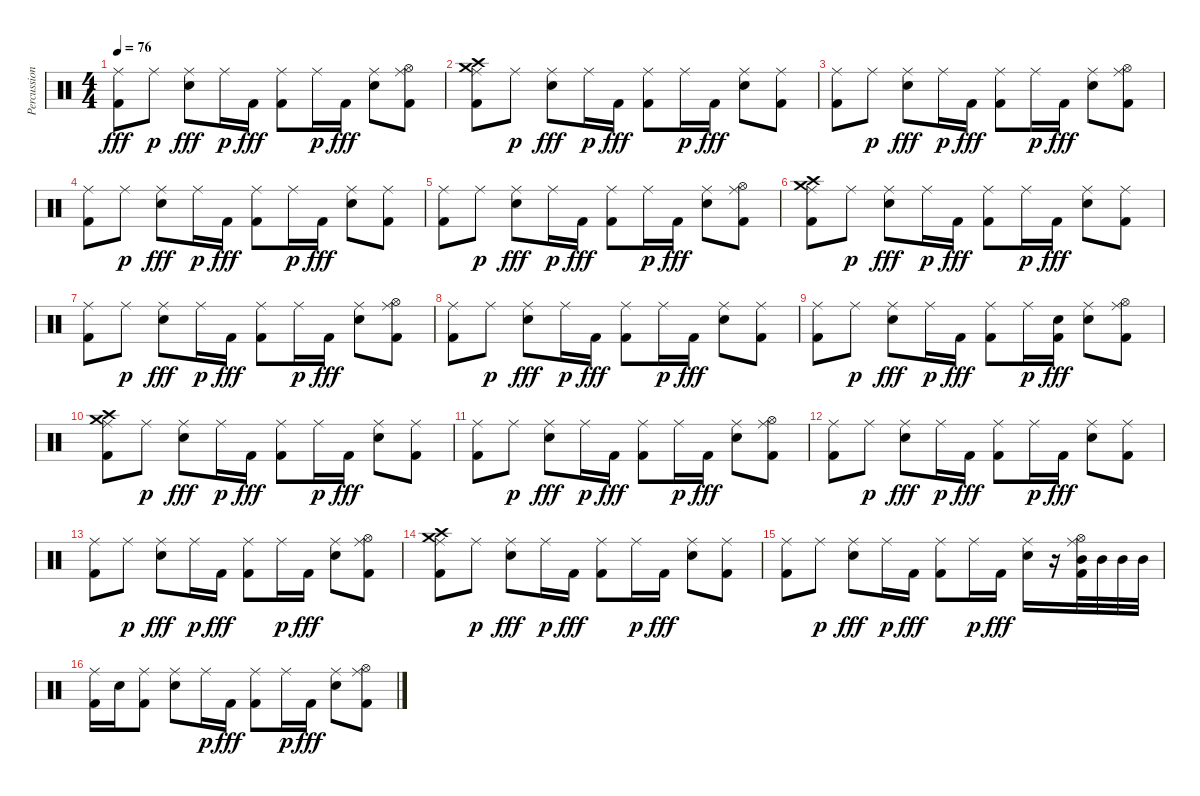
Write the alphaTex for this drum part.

\track ("Percussions" "Percussion") {instrument percussion}
\staff {score}
\articulation defaults
\ts (4 4)
\tempo 76
\clef neutral
\ks c
("Ride (middle)" "Kick (hit) 2").8{dy fff} "Ride (middle)".8{dy p} ("Ride (middle)" "Electric Snare (hit)").8{dy fff} "Ride (middle)".16{dy p} "Kick (hit) 2".16{dy fff} ("Ride (middle)" "Kick (hit) 2").8 "Ride (middle)".16{dy p} "Kick (hit) 2".16{dy fff} ("Ride (middle)" "Electric Snare (hit)").8 ("Ride (middle)" "Hi-Hat (open)" "Kick (hit) 2").8 |
("Ride (middle)" "Crash medium (hit)" "Crash high (hit)" "Kick (hit) 2").8 "Ride (middle)".8{dy p} ("Ride (middle)" "Electric Snare (hit)").8{dy fff} "Ride (middle)".16{dy p} "Kick (hit) 2".16{dy fff} ("Ride (middle)" "Kick (hit) 2").8 "Ride (middle)".16{dy p} "Kick (hit) 2".16{dy fff} ("Ride (middle)" "Electric Snare (hit)").8 ("Ride (middle)" "Kick (hit) 2").8 |
("Ride (middle)" "Kick (hit) 2").8 "Ride (middle)".8{dy p} ("Ride (middle)" "Electric Snare (hit)").8{dy fff} "Ride (middle)".16{dy p} "Kick (hit) 2".16{dy fff} ("Ride (middle)" "Kick (hit) 2").8 "Ride (middle)".16{dy p} "Kick (hit) 2".16{dy fff} ("Ride (middle)" "Electric Snare (hit)").8 ("Ride (middle)" "Hi-Hat (open)" "Kick (hit) 2").8 |
("Ride (middle)" "Kick (hit) 2").8 "Ride (middle)".8{dy p} ("Ride (middle)" "Electric Snare (hit)").8{dy fff} "Ride (middle)".16{dy p} "Kick (hit) 2".16{dy fff} ("Ride (middle)" "Kick (hit) 2").8 "Ride (middle)".16{dy p} "Kick (hit) 2".16{dy fff} ("Ride (middle)" "Electric Snare (hit)").8 ("Ride (middle)" "Kick (hit) 2").8 |
("Ride (middle)" "Kick (hit) 2").8 "Ride (middle)".8{dy p} ("Ride (middle)" "Electric Snare (hit)").8{dy fff} "Ride (middle)".16{dy p} "Kick (hit) 2".16{dy fff} ("Ride (middle)" "Kick (hit) 2").8 "Ride (middle)".16{dy p} "Kick (hit) 2".16{dy fff} ("Ride (middle)" "Electric Snare (hit)").8 ("Ride (middle)" "Hi-Hat (open)" "Kick (hit) 2").8 |
("Ride (middle)" "Crash medium (hit)" "Crash high (hit)" "Kick (hit) 2").8 "Ride (middle)".8{dy p} ("Ride (middle)" "Electric Snare (hit)").8{dy fff} "Ride (middle)".16{dy p} "Kick (hit) 2".16{dy fff} ("Ride (middle)" "Kick (hit) 2").8 "Ride (middle)".16{dy p} "Kick (hit) 2".16{dy fff} ("Ride (middle)" "Electric Snare (hit)").8 ("Ride (middle)" "Kick (hit) 2").8 |
("Ride (middle)" "Kick (hit) 2").8 "Ride (middle)".8{dy p} ("Ride (middle)" "Electric Snare (hit)").8{dy fff} "Ride (middle)".16{dy p} "Kick (hit) 2".16{dy fff} ("Ride (middle)" "Kick (hit) 2").8 "Ride (middle)".16{dy p} "Kick (hit) 2".16{dy fff} ("Ride (middle)" "Electric Snare (hit)").8 ("Ride (middle)" "Hi-Hat (open)" "Kick (hit) 2").8 |
("Ride (middle)" "Kick (hit) 2").8 "Ride (middle)".8{dy p} ("Ride (middle)" "Electric Snare (hit)").8{dy fff} "Ride (middle)".16{dy p} "Kick (hit) 2".16{dy fff} ("Ride (middle)" "Kick (hit) 2").8 "Ride (middle)".16{dy p} "Kick (hit) 2".16{dy fff} ("Ride (middle)" "Electric Snare (hit)").8 ("Ride (middle)" "Kick (hit) 2").8 |
("Ride (middle)" "Kick (hit) 2").8 "Ride (middle)".8{dy p} ("Ride (middle)" "Electric Snare (hit)").8{dy fff} "Ride (middle)".16{dy p} "Kick (hit) 2".16{dy fff} ("Ride (middle)" "Kick (hit) 2").8 "Ride (middle)".16{dy p} ("Electric Snare (hit)" "Kick (hit) 2").16{dy fff} ("Ride (middle)" "Electric Snare (hit)").8 ("Ride (middle)" "Hi-Hat (open)" "Kick (hit) 2").8 |
("Ride (middle)" "Crash medium (hit)" "Crash high (hit)" "Kick (hit) 2").8 "Ride (middle)".8{dy p} ("Ride (middle)" "Electric Snare (hit)").8{dy fff} "Ride (middle)".16{dy p} "Kick (hit) 2".16{dy fff} ("Ride (middle)" "Kick (hit) 2").8 "Ride (middle)".16{dy p} "Kick (hit) 2".16{dy fff} ("Ride (middle)" "Electric Snare (hit)").8 ("Ride (middle)" "Kick (hit) 2").8 |
("Ride (middle)" "Kick (hit) 2").8 "Ride (middle)".8{dy p} ("Ride (middle)" "Electric Snare (hit)").8{dy fff} "Ride (middle)".16{dy p} "Kick (hit) 2".16{dy fff} ("Ride (middle)" "Kick (hit) 2").8 "Ride (middle)".16{dy p} "Kick (hit) 2".16{dy fff} ("Ride (middle)" "Electric Snare (hit)").8 ("Ride (middle)" "Hi-Hat (open)" "Kick (hit) 2").8 |
("Ride (middle)" "Kick (hit) 2").8 "Ride (middle)".8{dy p} ("Ride (middle)" "Electric Snare (hit)").8{dy fff} "Ride (middle)".16{dy p} "Kick (hit) 2".16{dy fff} ("Ride (middle)" "Kick (hit) 2").8 "Ride (middle)".16{dy p} "Kick (hit) 2".16{dy fff} ("Ride (middle)" "Electric Snare (hit)").8 ("Ride (middle)" "Kick (hit) 2").8 |
("Ride (middle)" "Kick (hit) 2").8 "Ride (middle)".8{dy p} ("Ride (middle)" "Electric Snare (hit)").8{dy fff} "Ride (middle)".16{dy p} "Kick (hit) 2".16{dy fff} ("Ride (middle)" "Kick (hit) 2").8 "Ride (middle)".16{dy p} "Kick (hit) 2".16{dy fff} ("Ride (middle)" "Electric Snare (hit)").8 ("Ride (middle)" "Hi-Hat (open)" "Kick (hit) 2").8 |
("Ride (middle)" "Crash medium (hit)" "Crash high (hit)" "Kick (hit) 2").8 "Ride (middle)".8{dy p} ("Ride (middle)" "Electric Snare (hit)").8{dy fff} "Ride (middle)".16{dy p} "Kick (hit) 2".16{dy fff} ("Ride (middle)" "Kick (hit) 2").8 "Ride (middle)".16{dy p} "Kick (hit) 2".16{dy fff} ("Ride (middle)" "Electric Snare (hit)").8 ("Ride (middle)" "Kick (hit) 2").8 |
("Ride (middle)" "Kick (hit) 2").8 "Ride (middle)".8{dy p} ("Ride (middle)" "Electric Snare (hit)").8{dy fff} "Ride (middle)".16{dy p} "Kick (hit) 2".16{dy fff} ("Ride (middle)" "Kick (hit) 2").8 "Ride (middle)".16{dy p} "Kick (hit) 2".16{dy fff} ("Ride (middle)" "Electric Snare (hit)").16 r.16 ("Hi-Hat (open)" "Ride (middle)" "Mid Tom (hit)" "Kick (hit) 2").32 "Mid Tom (hit)".32 "Mid Tom (hit)".32 "Mid Tom (hit)".32 |
("Ride (middle)" "Kick (hit) 2").16 "Electric Snare (hit)".16 ("Ride (middle)" "Kick (hit) 2").8 ("Ride (middle)" "Electric Snare (hit)").8 "Ride (middle)".16{dy p} "Kick (hit) 2".16{dy fff} ("Ride (middle)" "Kick (hit) 2").8 "Ride (middle)".16{dy p} "Kick (hit) 2".16{dy fff} ("Ride (middle)" "Electric Snare (hit)").8 ("Ride (middle)" "Hi-Hat (open)" "Kick (hit) 2").8
